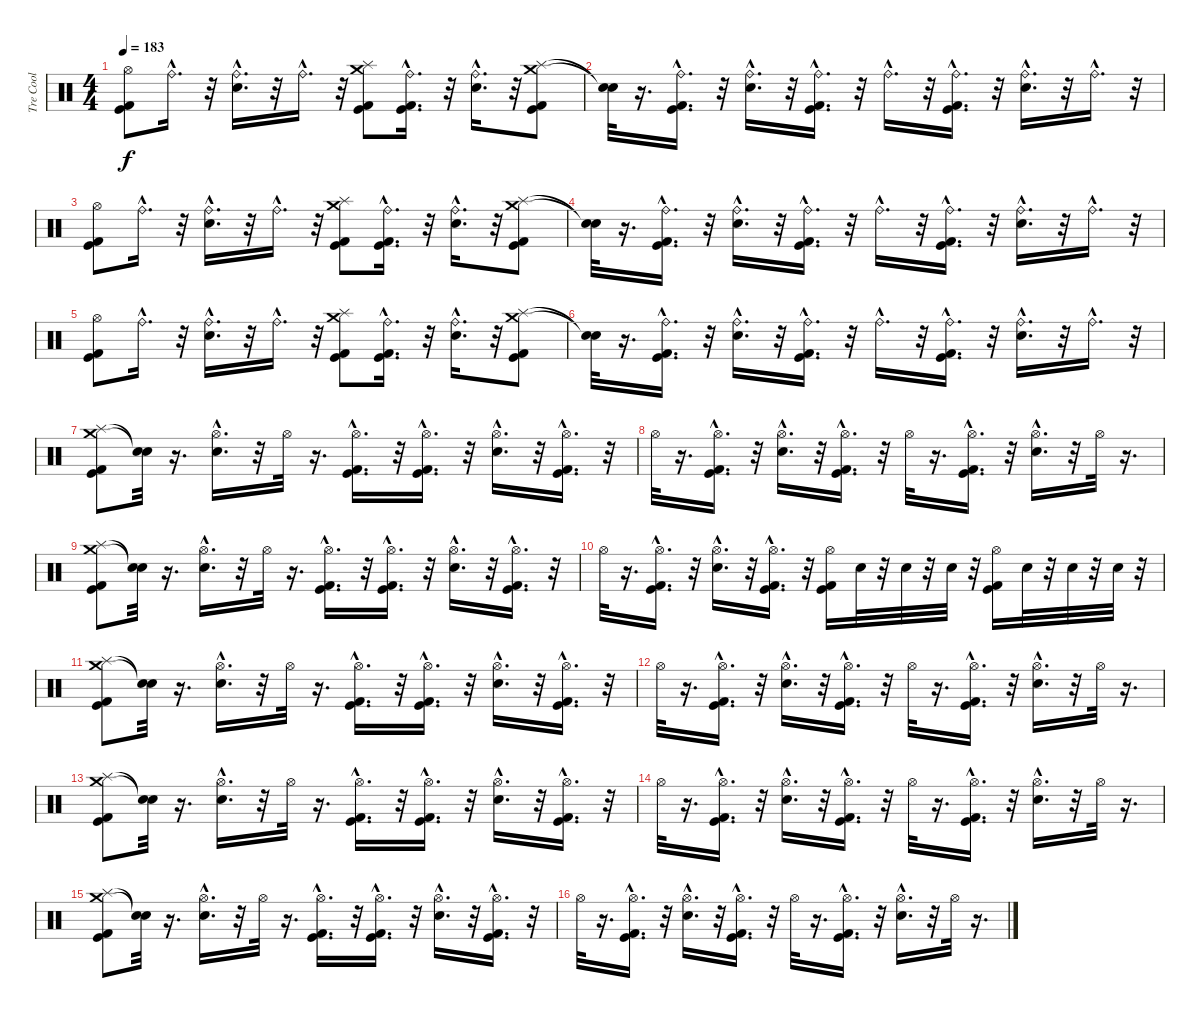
\track ("Tre Cool" "Tre Cool") {instrument percussion}
\staff {score}
\articulation defaults
\ts (4 4)
\tempo 183
\clef neutral
\ks c
("Kick (hit)" "Kick (hit) 2" "Hi-Hat (open)").8{dy f} "Ride (bell)"{hac}.16{d} r.32 ("Electric Snare (hit)"{hac} "Ride (bell)"{hac}).16{d} r.32 "Ride (bell)"{hac}.16{d} r.32 ("Splash (hit)" "Crash medium (hit)" "Kick (hit)" "Kick (hit) 2").8 ("Kick (hit)"{hac} "Kick (hit) 2"{hac} "Ride (bell)"{hac}).16{d} r.32 ("Electric Snare (hit)"{hac} "Ride (bell)"{hac}).16{d} r.32 ("Splash (hit)" "Crash medium (hit)" "Kick (hit)" "Kick (hit) 2").8 |
("Snare (hit)"{t} "Snare (hit)"{t}).32 r.16{d} ("Kick (hit)"{hac} "Kick (hit) 2"{hac} "Ride (bell)"{hac}).16{d} r.32 ("Electric Snare (hit)"{hac} "Ride (bell)"{hac}).16{d} r.32 ("Kick (hit)"{hac} "Kick (hit) 2"{hac} "Ride (bell)"{hac}).16{d} r.32 "Ride (bell)"{hac}.16{d} r.32 ("Kick (hit)"{hac} "Kick (hit) 2"{hac} "Ride (bell)"{hac}).16{d} r.32 ("Electric Snare (hit)"{hac} "Ride (bell)"{hac}).16{d} r.32 "Ride (bell)"{hac}.16{d} r.32 |
("Kick (hit)" "Kick (hit) 2" "Hi-Hat (open)").8 "Ride (bell)"{hac}.16{d} r.32 ("Electric Snare (hit)"{hac} "Ride (bell)"{hac}).16{d} r.32 "Ride (bell)"{hac}.16{d} r.32 ("Splash (hit)" "Crash medium (hit)" "Kick (hit)" "Kick (hit) 2").8 ("Kick (hit)"{hac} "Kick (hit) 2"{hac} "Ride (bell)"{hac}).16{d} r.32 ("Electric Snare (hit)"{hac} "Ride (bell)"{hac}).16{d} r.32 ("Splash (hit)" "Crash medium (hit)" "Kick (hit)" "Kick (hit) 2").8 |
("Snare (hit)"{t} "Snare (hit)"{t}).32 r.16{d} ("Kick (hit)"{hac} "Kick (hit) 2"{hac} "Ride (bell)"{hac}).16{d} r.32 ("Electric Snare (hit)"{hac} "Ride (bell)"{hac}).16{d} r.32 ("Kick (hit)"{hac} "Kick (hit) 2"{hac} "Ride (bell)"{hac}).16{d} r.32 "Ride (bell)"{hac}.16{d} r.32 ("Kick (hit)"{hac} "Kick (hit) 2"{hac} "Ride (bell)"{hac}).16{d} r.32 ("Electric Snare (hit)"{hac} "Ride (bell)"{hac}).16{d} r.32 "Ride (bell)"{hac}.16{d} r.32 |
("Kick (hit)" "Kick (hit) 2" "Hi-Hat (open)").8 "Ride (bell)"{hac}.16{d} r.32 ("Electric Snare (hit)"{hac} "Ride (bell)"{hac}).16{d} r.32 "Ride (bell)"{hac}.16{d} r.32 ("Splash (hit)" "Crash medium (hit)" "Kick (hit)" "Kick (hit) 2").8 ("Kick (hit)"{hac} "Kick (hit) 2"{hac} "Ride (bell)"{hac}).16{d} r.32 ("Electric Snare (hit)"{hac} "Ride (bell)"{hac}).16{d} r.32 ("Splash (hit)" "Crash medium (hit)" "Kick (hit)" "Kick (hit) 2").8 |
("Snare (hit)"{t} "Snare (hit)"{t}).32 r.16{d} ("Kick (hit)"{hac} "Kick (hit) 2"{hac} "Ride (bell)"{hac}).16{d} r.32 ("Electric Snare (hit)"{hac} "Ride (bell)"{hac}).16{d} r.32 ("Kick (hit)"{hac} "Kick (hit) 2"{hac} "Ride (bell)"{hac}).16{d} r.32 "Ride (bell)"{hac}.16{d} r.32 ("Kick (hit)"{hac} "Kick (hit) 2"{hac} "Ride (bell)"{hac}).16{d} r.32 ("Electric Snare (hit)"{hac} "Ride (bell)"{hac}).16{d} r.32 "Ride (bell)"{hac}.16{d} r.32 |
("Splash (hit)" "Crash medium (hit)" "Kick (hit)" "Kick (hit) 2").8 ("Snare (hit)"{t} "Snare (hit)"{t}).32 r.16{d} ("Electric Snare (hit)"{hac} "Hi-Hat (open)"{hac}).16{d} r.32 "Hi-Hat (open)".32 r.16{d} ("Kick (hit)"{hac} "Kick (hit) 2"{hac} "Hi-Hat (open)"{hac}).16{d} r.32 ("Kick (hit)"{hac} "Kick (hit) 2"{hac} "Hi-Hat (open)"{hac}).16{d} r.32 ("Electric Snare (hit)"{hac} "Hi-Hat (open)"{hac}).16{d} r.32 ("Kick (hit)"{hac} "Kick (hit) 2"{hac} "Hi-Hat (open)"{hac}).16{d} r.32 |
"Hi-Hat (open)".32 r.16{d} ("Kick (hit)"{hac} "Kick (hit) 2"{hac} "Hi-Hat (open)"{hac}).16{d} r.32 ("Electric Snare (hit)"{hac} "Hi-Hat (open)"{hac}).16{d} r.32 ("Kick (hit)"{hac} "Kick (hit) 2"{hac} "Hi-Hat (open)"{hac}).16{d} r.32 "Hi-Hat (open)".32 r.16{d} ("Kick (hit)"{hac} "Kick (hit) 2"{hac} "Hi-Hat (open)"{hac}).16{d} r.32 ("Electric Snare (hit)"{hac} "Hi-Hat (open)"{hac}).16{d} r.32 "Hi-Hat (open)".32 r.16{d} |
("Splash (hit)" "Crash medium (hit)" "Kick (hit)" "Kick (hit) 2").8 ("Snare (hit)"{t} "Snare (hit)"{t}).32 r.16{d} ("Electric Snare (hit)"{hac} "Hi-Hat (open)"{hac}).16{d} r.32 "Hi-Hat (open)".32 r.16{d} ("Kick (hit)"{hac} "Kick (hit) 2"{hac} "Hi-Hat (open)"{hac}).16{d} r.32 ("Kick (hit)"{hac} "Kick (hit) 2"{hac} "Hi-Hat (open)"{hac}).16{d} r.32 ("Electric Snare (hit)"{hac} "Hi-Hat (open)"{hac}).16{d} r.32 ("Kick (hit)"{hac} "Kick (hit) 2"{hac} "Hi-Hat (open)"{hac}).16{d} r.32 |
"Hi-Hat (open)".32 r.16{d} ("Kick (hit)"{hac} "Kick (hit) 2"{hac} "Hi-Hat (open)"{hac}).16{d} r.32 ("Electric Snare (hit)"{hac} "Hi-Hat (open)"{hac}).16{d} r.32 ("Kick (hit)"{hac} "Kick (hit) 2"{hac} "Hi-Hat (open)"{hac}).16{d} r.32 ("Kick (hit)" "Kick (hit) 2" "Hi-Hat (open)").16 "Electric Snare (hit)".32 r.32 "Electric Snare (hit)".32 r.32 "Electric Snare (hit)".32 r.32 ("Kick (hit)" "Kick (hit) 2" "Hi-Hat (open)").16 "Electric Snare (hit)".32 r.32 "Electric Snare (hit)".32 r.32 "Electric Snare (hit)".32 r.32 |
("Splash (hit)" "Crash medium (hit)" "Kick (hit)" "Kick (hit) 2").8 ("Snare (hit)"{t} "Snare (hit)"{t}).32 r.16{d} ("Electric Snare (hit)"{hac} "Hi-Hat (open)"{hac}).16{d} r.32 "Hi-Hat (open)".32 r.16{d} ("Kick (hit)"{hac} "Kick (hit) 2"{hac} "Hi-Hat (open)"{hac}).16{d} r.32 ("Kick (hit)"{hac} "Kick (hit) 2"{hac} "Hi-Hat (open)"{hac}).16{d} r.32 ("Electric Snare (hit)"{hac} "Hi-Hat (open)"{hac}).16{d} r.32 ("Kick (hit)"{hac} "Kick (hit) 2"{hac} "Hi-Hat (open)"{hac}).16{d} r.32 |
"Hi-Hat (open)".32 r.16{d} ("Kick (hit)"{hac} "Kick (hit) 2"{hac} "Hi-Hat (open)"{hac}).16{d} r.32 ("Electric Snare (hit)"{hac} "Hi-Hat (open)"{hac}).16{d} r.32 ("Kick (hit)"{hac} "Kick (hit) 2"{hac} "Hi-Hat (open)"{hac}).16{d} r.32 "Hi-Hat (open)".32 r.16{d} ("Kick (hit)"{hac} "Kick (hit) 2"{hac} "Hi-Hat (open)"{hac}).16{d} r.32 ("Electric Snare (hit)"{hac} "Hi-Hat (open)"{hac}).16{d} r.32 "Hi-Hat (open)".32 r.16{d} |
("Splash (hit)" "Crash medium (hit)" "Kick (hit)" "Kick (hit) 2").8 ("Snare (hit)"{t} "Snare (hit)"{t}).32 r.16{d} ("Electric Snare (hit)"{hac} "Hi-Hat (open)"{hac}).16{d} r.32 "Hi-Hat (open)".32 r.16{d} ("Kick (hit)"{hac} "Kick (hit) 2"{hac} "Hi-Hat (open)"{hac}).16{d} r.32 ("Kick (hit)"{hac} "Kick (hit) 2"{hac} "Hi-Hat (open)"{hac}).16{d} r.32 ("Electric Snare (hit)"{hac} "Hi-Hat (open)"{hac}).16{d} r.32 ("Kick (hit)"{hac} "Kick (hit) 2"{hac} "Hi-Hat (open)"{hac}).16{d} r.32 |
"Hi-Hat (open)".32 r.16{d} ("Kick (hit)"{hac} "Kick (hit) 2"{hac} "Hi-Hat (open)"{hac}).16{d} r.32 ("Electric Snare (hit)"{hac} "Hi-Hat (open)"{hac}).16{d} r.32 ("Kick (hit)"{hac} "Kick (hit) 2"{hac} "Hi-Hat (open)"{hac}).16{d} r.32 "Hi-Hat (open)".32 r.16{d} ("Kick (hit)"{hac} "Kick (hit) 2"{hac} "Hi-Hat (open)"{hac}).16{d} r.32 ("Electric Snare (hit)"{hac} "Hi-Hat (open)"{hac}).16{d} r.32 "Hi-Hat (open)".32 r.16{d} |
("Splash (hit)" "Crash medium (hit)" "Kick (hit)" "Kick (hit) 2").8 ("Snare (hit)"{t} "Snare (hit)"{t}).32 r.16{d} ("Electric Snare (hit)"{hac} "Hi-Hat (open)"{hac}).16{d} r.32 "Hi-Hat (open)".32 r.16{d} ("Kick (hit)"{hac} "Kick (hit) 2"{hac} "Hi-Hat (open)"{hac}).16{d} r.32 ("Kick (hit)"{hac} "Kick (hit) 2"{hac} "Hi-Hat (open)"{hac}).16{d} r.32 ("Electric Snare (hit)"{hac} "Hi-Hat (open)"{hac}).16{d} r.32 ("Kick (hit)"{hac} "Kick (hit) 2"{hac} "Hi-Hat (open)"{hac}).16{d} r.32 |
"Hi-Hat (open)".32 r.16{d} ("Kick (hit)"{hac} "Kick (hit) 2"{hac} "Hi-Hat (open)"{hac}).16{d} r.32 ("Electric Snare (hit)"{hac} "Hi-Hat (open)"{hac}).16{d} r.32 ("Kick (hit)"{hac} "Kick (hit) 2"{hac} "Hi-Hat (open)"{hac}).16{d} r.32 "Hi-Hat (open)".32 r.16{d} ("Kick (hit)"{hac} "Kick (hit) 2"{hac} "Hi-Hat (open)"{hac}).16{d} r.32 ("Electric Snare (hit)"{hac} "Hi-Hat (open)"{hac}).16{d} r.32 "Hi-Hat (open)".32 r.16{d}
